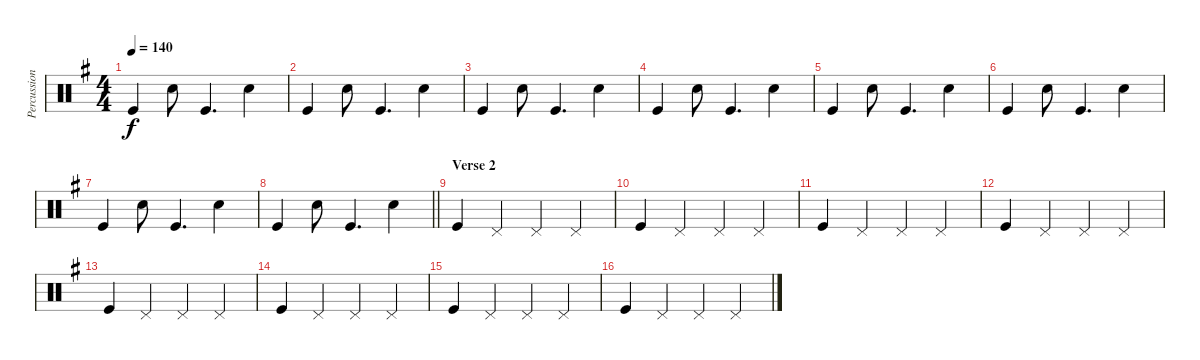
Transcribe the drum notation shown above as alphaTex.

\track ("Percussion" "Percussion") {instrument percussion}
\staff {score}
\articulation defaults
\ts (4 4)
\tempo 140
\clef neutral
\ks g "Kick (hit)".4{dy f} "Electric Snare (hit)".8 "Kick (hit)".4{d} "Electric Snare (hit)".4
|
"Kick (hit)".4 "Electric Snare (hit)".8 "Kick (hit)".4{d} "Electric Snare (hit)".4 |
"Kick (hit)".4 "Electric Snare (hit)".8 "Kick (hit)".4{d} "Electric Snare (hit)".4 |
"Kick (hit)".4 "Electric Snare (hit)".8 "Kick (hit)".4{d} "Electric Snare (hit)".4 |
"Kick (hit)".4 "Electric Snare (hit)".8 "Kick (hit)".4{d} "Electric Snare (hit)".4 |
"Kick (hit)".4 "Electric Snare (hit)".8 "Kick (hit)".4{d} "Electric Snare (hit)".4 |
"Kick (hit)".4 "Electric Snare (hit)".8 "Kick (hit)".4{d} "Electric Snare (hit)".4 |
\barLineRight lightlight "Kick (hit)".4 "Electric Snare (hit)".8 "Kick (hit)".4{d} "Electric Snare (hit)".4
|
\section ("" "Verse 2")
"Kick (hit)".4 "Pedal Hi-Hat (hit)".4 "Pedal Hi-Hat (hit)".4 "Pedal Hi-Hat (hit)".4 |
"Kick (hit)".4 "Pedal Hi-Hat (hit)".4 "Pedal Hi-Hat (hit)".4 "Pedal Hi-Hat (hit)".4 |
"Kick (hit)".4 "Pedal Hi-Hat (hit)".4 "Pedal Hi-Hat (hit)".4 "Pedal Hi-Hat (hit)".4 |
"Kick (hit)".4 "Pedal Hi-Hat (hit)".4 "Pedal Hi-Hat (hit)".4 "Pedal Hi-Hat (hit)".4 |
"Kick (hit)".4 "Pedal Hi-Hat (hit)".4 "Pedal Hi-Hat (hit)".4 "Pedal Hi-Hat (hit)".4 |
"Kick (hit)".4 "Pedal Hi-Hat (hit)".4 "Pedal Hi-Hat (hit)".4 "Pedal Hi-Hat (hit)".4 |
"Kick (hit)".4 "Pedal Hi-Hat (hit)".4 "Pedal Hi-Hat (hit)".4 "Pedal Hi-Hat (hit)".4 |
"Kick (hit)".4 "Pedal Hi-Hat (hit)".4 "Pedal Hi-Hat (hit)".4 "Pedal Hi-Hat (hit)".4
